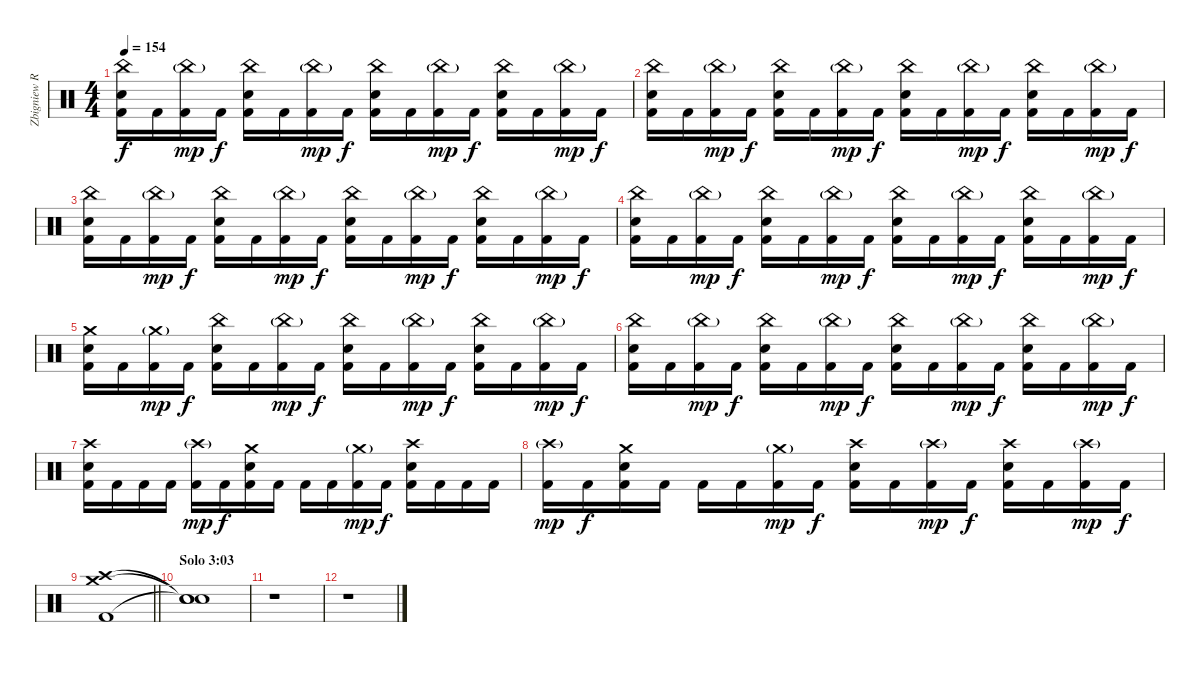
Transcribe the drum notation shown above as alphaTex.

\track ("Zbigniew Robert \"Inferno\" Prominski" "Zbigniew R") {instrument percussion}
\staff {score}
\articulation defaults
\ts (4 4)
\tempo 154
\clef neutral
\ks c
("China (hit)" "Snare (hit) 2" "Kick (hit) 2").16{dy f} "Kick (hit) 2".16 ("China (hit)"{g} "Kick (hit) 2").16{dy mp} "Kick (hit) 2".16{dy f} ("China (hit)" "Snare (hit) 2" "Kick (hit) 2").16 "Kick (hit) 2".16 ("China (hit)"{g} "Kick (hit) 2").16{dy mp} "Kick (hit) 2".16{dy f} ("China (hit)" "Snare (hit) 2" "Kick (hit) 2").16 "Kick (hit) 2".16 ("China (hit)"{g} "Kick (hit) 2").16{dy mp} "Kick (hit) 2".16{dy f} ("China (hit)" "Snare (hit) 2" "Kick (hit) 2").16 "Kick (hit) 2".16 ("China (hit)"{g} "Kick (hit) 2").16{dy mp} "Kick (hit) 2".16{dy f} |
("China (hit)" "Snare (hit) 2" "Kick (hit) 2").16 "Kick (hit) 2".16 ("China (hit)"{g} "Kick (hit) 2").16{dy mp} "Kick (hit) 2".16{dy f} ("China (hit)" "Snare (hit) 2" "Kick (hit) 2").16 "Kick (hit) 2".16 ("China (hit)"{g} "Kick (hit) 2").16{dy mp} "Kick (hit) 2".16{dy f} ("China (hit)" "Snare (hit) 2" "Kick (hit) 2").16 "Kick (hit) 2".16 ("China (hit)"{g} "Kick (hit) 2").16{dy mp} "Kick (hit) 2".16{dy f} ("China (hit)" "Snare (hit) 2" "Kick (hit) 2").16 "Kick (hit) 2".16 ("China (hit)"{g} "Kick (hit) 2").16{dy mp} "Kick (hit) 2".16{dy f} |
("China (hit)" "Snare (hit) 2" "Kick (hit) 2").16 "Kick (hit) 2".16 ("China (hit)"{g} "Kick (hit) 2").16{dy mp} "Kick (hit) 2".16{dy f} ("China (hit)" "Snare (hit) 2" "Kick (hit) 2").16 "Kick (hit) 2".16 ("China (hit)"{g} "Kick (hit) 2").16{dy mp} "Kick (hit) 2".16{dy f} ("China (hit)" "Snare (hit) 2" "Kick (hit) 2").16 "Kick (hit) 2".16 ("China (hit)"{g} "Kick (hit) 2").16{dy mp} "Kick (hit) 2".16{dy f} ("China (hit)" "Snare (hit) 2" "Kick (hit) 2").16 "Kick (hit) 2".16 ("China (hit)"{g} "Kick (hit) 2").16{dy mp} "Kick (hit) 2".16{dy f} |
("China (hit)" "Snare (hit) 2" "Kick (hit) 2").16 "Kick (hit) 2".16 ("China (hit)"{g} "Kick (hit) 2").16{dy mp} "Kick (hit) 2".16{dy f} ("China (hit)" "Snare (hit) 2" "Kick (hit) 2").16 "Kick (hit) 2".16 ("China (hit)"{g} "Kick (hit) 2").16{dy mp} "Kick (hit) 2".16{dy f} ("China (hit)" "Snare (hit) 2" "Kick (hit) 2").16 "Kick (hit) 2".16 ("China (hit)"{g} "Kick (hit) 2").16{dy mp} "Kick (hit) 2".16{dy f} ("China (hit)" "Snare (hit) 2" "Kick (hit) 2").16 "Kick (hit) 2".16 ("China (hit)"{g} "Kick (hit) 2").16{dy mp} "Kick (hit) 2".16{dy f} |
("Crash medium (hit)" "Snare (hit) 2" "Kick (hit) 2").16 "Kick (hit) 2".16 ("Crash medium (hit)"{g} "Kick (hit) 2").16{dy mp} "Kick (hit) 2".16{dy f} ("China (hit)" "Snare (hit) 2" "Kick (hit) 2").16 "Kick (hit) 2".16 ("China (hit)"{g} "Kick (hit) 2").16{dy mp} "Kick (hit) 2".16{dy f} ("China (hit)" "Snare (hit) 2" "Kick (hit) 2").16 "Kick (hit) 2".16 ("China (hit)"{g} "Kick (hit) 2").16{dy mp} "Kick (hit) 2".16{dy f} ("China (hit)" "Snare (hit) 2" "Kick (hit) 2").16 "Kick (hit) 2".16 ("China (hit)"{g} "Kick (hit) 2").16{dy mp} "Kick (hit) 2".16{dy f} |
("China (hit)" "Snare (hit) 2" "Kick (hit) 2").16 "Kick (hit) 2".16 ("China (hit)"{g} "Kick (hit) 2").16{dy mp} "Kick (hit) 2".16{dy f} ("China (hit)" "Snare (hit) 2" "Kick (hit) 2").16 "Kick (hit) 2".16 ("China (hit)"{g} "Kick (hit) 2").16{dy mp} "Kick (hit) 2".16{dy f} ("China (hit)" "Snare (hit) 2" "Kick (hit) 2").16 "Kick (hit) 2".16 ("China (hit)"{g} "Kick (hit) 2").16{dy mp} "Kick (hit) 2".16{dy f} ("China (hit)" "Snare (hit) 2" "Kick (hit) 2").16 "Kick (hit) 2".16 ("China (hit)"{g} "Kick (hit) 2").16{dy mp} "Kick (hit) 2".16{dy f} |
("Crash high (hit)" "Snare (hit) 2" "Kick (hit) 2").16 "Kick (hit) 2".16 "Kick (hit) 2".16 "Kick (hit) 2".16 ("Crash high (hit)"{g} "Kick (hit) 2").16{dy mp} "Kick (hit) 2".16{dy f} ("Crash medium (hit)" "Snare (hit) 2" "Kick (hit) 2").16 "Kick (hit) 2".16 "Kick (hit) 2".16 "Kick (hit) 2".16 ("Crash medium (hit)"{g} "Kick (hit) 2").16{dy mp} "Kick (hit) 2".16{dy f} ("Crash high (hit)" "Snare (hit) 2" "Kick (hit) 2").16 "Kick (hit) 2".16 "Kick (hit) 2".16 "Kick (hit) 2".16 |
("Crash high (hit)"{g} "Kick (hit) 2").16{dy mp} "Kick (hit) 2".16{dy f} ("Crash medium (hit)" "Snare (hit) 2" "Kick (hit) 2").16 "Kick (hit) 2".16 "Kick (hit) 2".16 "Kick (hit) 2".16 ("Crash medium (hit)"{g} "Kick (hit) 2").16{dy mp} "Kick (hit) 2".16{dy f} ("Crash high (hit)" "Snare (hit) 2" "Kick (hit) 2").16 "Kick (hit) 2".16 ("Crash high (hit)"{g} "Kick (hit) 2").16{dy mp} "Kick (hit) 2".16{dy f} ("Crash high (hit)" "Snare (hit) 2" "Kick (hit) 2").16 "Kick (hit) 2".16 ("Crash high (hit)"{g} "Kick (hit) 2").16{dy mp} "Kick (hit) 2".16{dy f} |
\barLineRight lightlight
("Crash medium (hit)" "Crash high (hit)" "Kick (hit) 2").1 |
\section ("" "Solo 3:03")
("Snare (hit)"{t} "Snare (hit)"{t} "Snare (hit)"{t}).1 |
r.1 |
r.1
